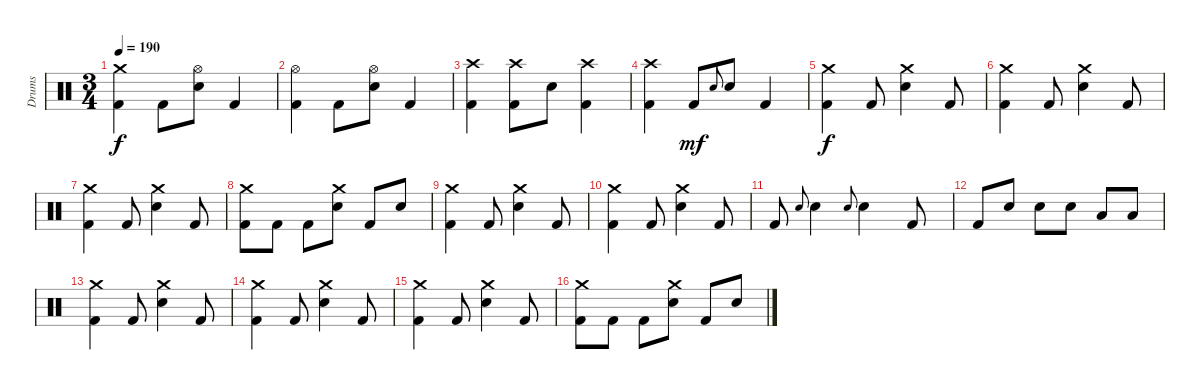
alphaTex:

\track ("Drums" "Drums") {instrument percussion}
\staff {score}
\articulation defaults
\ts (3 4)
\tempo 190
\clef neutral
\ks c
("Crash medium (hit)" "Kick (hit) 2").4{dy f} "Kick (hit) 2".8 ("Hi-Hat (open)" "Electric Snare (hit)").8 "Kick (hit) 2".4 |
("Hi-Hat (open)" "Kick (hit) 2").4 "Kick (hit) 2".8 ("Hi-Hat (open)" "Electric Snare (hit)").8 "Kick (hit) 2".4 |
("Crash high (hit)" "Kick (hit) 2").4 ("Crash high (hit)" "Kick (hit) 2").8 "Electric Snare (hit)".8 ("Crash high (hit)" "Kick (hit) 2").4 |
("Crash high (hit)" "Kick (hit) 2").4 "Kick (hit) 2".8{dy mf} "Electric Snare (hit)".8{gr onbeat} "Electric Snare (hit)".8 "Kick (hit) 2".4 |
("Crash medium (hit)" "Kick (hit) 2").4{dy f} "Kick (hit) 2".8 ("Crash medium (hit)" "Electric Snare (hit)").4 "Kick (hit) 2".8 |
("Crash medium (hit)" "Kick (hit) 2").4 "Kick (hit) 2".8 ("Crash medium (hit)" "Electric Snare (hit)").4 "Kick (hit) 2".8 |
("Crash medium (hit)" "Kick (hit) 2").4 "Kick (hit) 2".8 ("Crash medium (hit)" "Electric Snare (hit)").4 "Kick (hit) 2".8 |
("Crash medium (hit)" "Kick (hit) 2").8 "Kick (hit) 2".8 "Kick (hit) 2".8 ("Crash medium (hit)" "Electric Snare (hit)").8 "Kick (hit) 2".8 "Electric Snare (hit)".8 |
("Crash medium (hit)" "Kick (hit) 2").4 "Kick (hit) 2".8 ("Crash medium (hit)" "Electric Snare (hit)").4 "Kick (hit) 2".8 |
("Crash medium (hit)" "Kick (hit) 2").4 "Kick (hit) 2".8 ("Crash medium (hit)" "Electric Snare (hit)").4 "Kick (hit) 2".8 |
"Kick (hit) 2".8 "Electric Snare (hit)".8{gr onbeat} "Electric Snare (hit)".4 "Electric Snare (hit)".8{gr onbeat} "Electric Snare (hit)".4 "Kick (hit) 2".8 |
"Kick (hit) 2".8 "Electric Snare (hit)".8 "Electric Snare (hit)".8 "Electric Snare (hit)".8 "Low Tom (hit)".8 "Low Tom (hit)".8 |
("Crash medium (hit)" "Kick (hit) 2").4 "Kick (hit) 2".8 ("Crash medium (hit)" "Electric Snare (hit)").4 "Kick (hit) 2".8 |
("Crash medium (hit)" "Kick (hit) 2").4 "Kick (hit) 2".8 ("Crash medium (hit)" "Electric Snare (hit)").4 "Kick (hit) 2".8 |
("Crash medium (hit)" "Kick (hit) 2").4 "Kick (hit) 2".8 ("Crash medium (hit)" "Electric Snare (hit)").4 "Kick (hit) 2".8 |
("Crash medium (hit)" "Kick (hit) 2").8 "Kick (hit) 2".8 "Kick (hit) 2".8 ("Crash medium (hit)" "Electric Snare (hit)").8 "Kick (hit) 2".8 "Electric Snare (hit)".8
